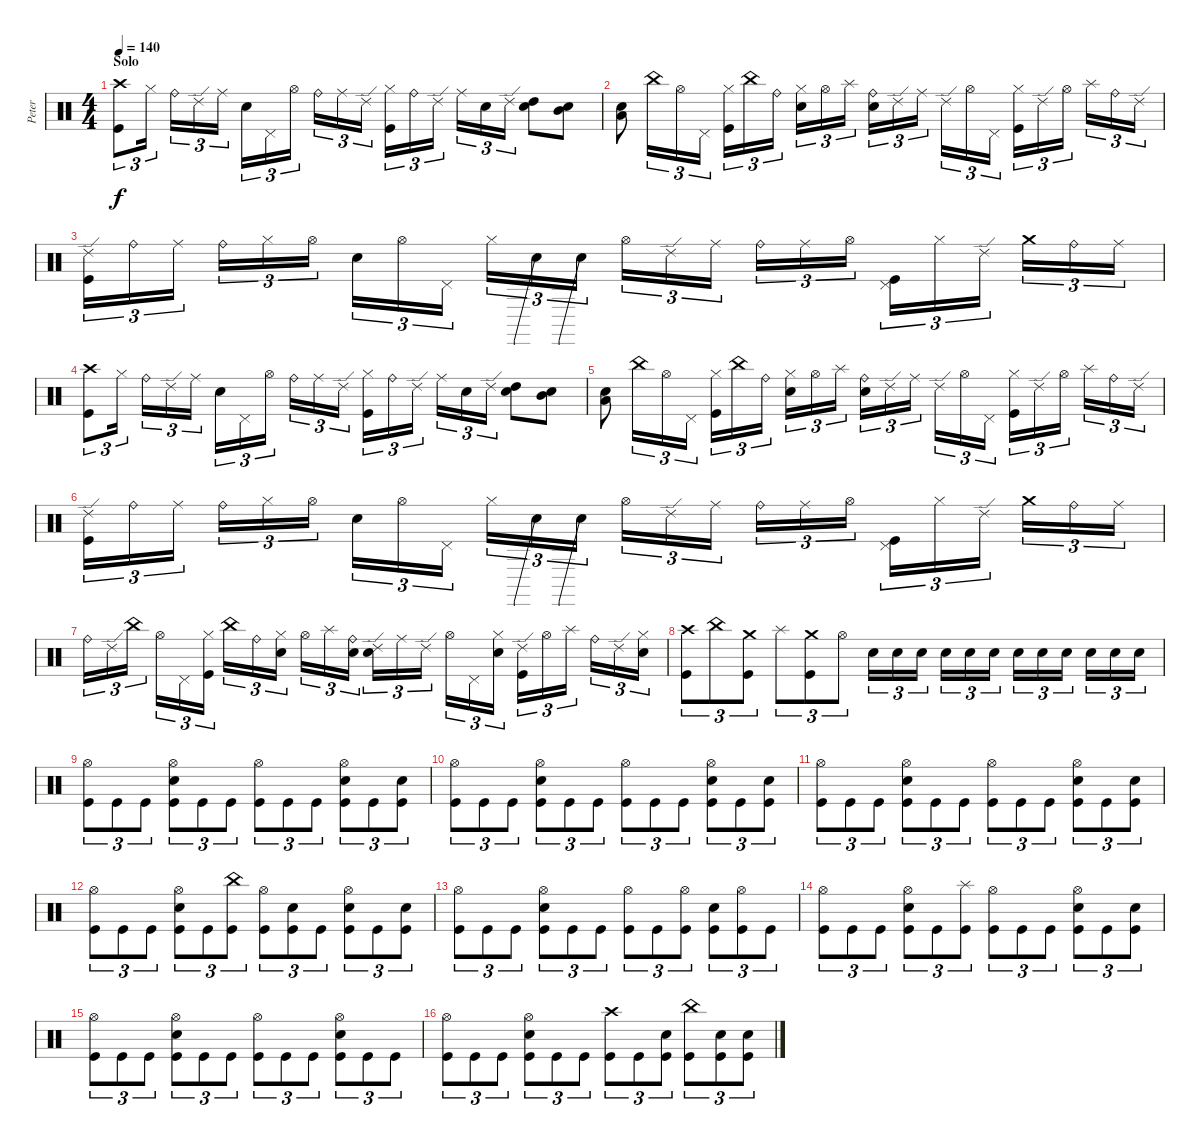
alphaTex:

\track ("Peter" "Peter") {instrument percussion}
\staff {score}
\articulation defaults
\ts (4 4)
\section ("" "Solo")
\tempo 140
\clef neutral
\ks c
("Crash high (hit)" "Kick (hit)").8{tu (3 2) dy f} "Hi-Hat (closed)".16{tu (3 2)} "Ride (bell)".16{tu (3 2)} "Ride (edge) 2".16{tu (3 2)} "Ride (middle)".16{tu (3 2)} "Electric Snare (hit)".16{tu (3 2)} "Pedal Hi-Hat (hit)".16{tu (3 2)} "Hi-Hat (open)".16{tu (3 2)} "Ride (bell)".16{tu (3 2)} "Ride (middle)".16{tu (3 2)} "Ride (edge) 2".16{tu (3 2)} ("Hi-Hat (closed)" "Kick (hit)").16{tu (3 2)} "Ride (bell)".16{tu (3 2)} "Ride (edge) 2".16{tu (3 2)} "Ride (middle)".16{tu (3 2)} "Electric Snare (hit)".16{tu (3 2)} "Ride (edge) 2".16{tu (3 2)} ("High Tom (hit)" "Electric Snare (hit)").8 ("Mid Tom (hit)" "Electric Snare (hit)").8 |
("Low Tom (hit)" "Electric Snare (hit)").8 "China (hit)".16{tu (3 2)} "Hi-Hat (open)".16{tu (3 2)} "Pedal Hi-Hat (hit)".16{tu (3 2)} ("Hi-Hat (closed)" "Kick (hit)").16{tu (3 2)} "China (hit)".16{tu (3 2)} "Ride (bell)".16{tu (3 2)} ("Hi-Hat (closed)" "Electric Snare (hit)").16{tu (3 2)} "Hi-Hat (open)".16{tu (3 2)} "Splash (hit)".16{tu (3 2)} ("Ride (bell)" "Electric Snare (hit)").16{tu (3 2)} "Ride (edge) 2".16{tu (3 2)} "Ride (middle)".16{tu (3 2)} "Ride (edge) 2".16{tu (3 2)} "Hi-Hat (open)".16{tu (3 2)} "Pedal Hi-Hat (hit)".16{tu (3 2)} ("Hi-Hat (closed)" "Kick (hit)").16{tu (3 2)} "Ride (edge) 2".16{tu (3 2)} "Hi-Hat (open)".16{tu (3 2)} "Splash (hit)".16{tu (3 2)} "Ride (bell)".16{tu (3 2)} "Ride (edge) 2".16{tu (3 2)} |
("Ride (edge) 2" "Kick (hit)").16{tu (3 2)} "Ride (bell)".16{tu (3 2)} "Ride (middle)".16{tu (3 2)} "Ride (bell)".16{tu (3 2)} "Hi-Hat (closed)".16{tu (3 2)} "Hi-Hat (open)".16{tu (3 2)} "Electric Snare (hit)".16{tu (3 2)} "Hi-Hat (open)".16{tu (3 2)} "Pedal Hi-Hat (hit)".16{tu (3 2)} "Hi-Hat (closed)".16{tu (3 2)} "Electric Snare (hit)"{be (prebend 0 12 60 12)}.16{tu (3 2)} "Electric Snare (hit)"{be (prebend 0 12 60 12)}.16{tu (3 2)} "Hi-Hat (open)".16{tu (3 2)} "Ride (edge) 2".16{tu (3 2)} "Ride (middle)".16{tu (3 2)} "Ride (bell)".16{tu (3 2)} "Ride (middle)".16{tu (3 2)} "Hi-Hat (open)".16{tu (3 2)} ("Pedal Hi-Hat (hit)" "Kick (hit)").16{tu (3 2)} "Hi-Hat (closed)".16{tu (3 2)} "Ride (edge) 2".16{tu (3 2)} "Crash medium (hit)".16{tu (3 2)} "Ride (bell)".16{tu (3 2)} "Ride (middle)".16{tu (3 2)} |
("Crash high (hit)" "Kick (hit)").8{tu (3 2)} "Hi-Hat (closed)".16{tu (3 2)} "Ride (bell)".16{tu (3 2)} "Ride (edge) 2".16{tu (3 2)} "Ride (middle)".16{tu (3 2)} "Electric Snare (hit)".16{tu (3 2)} "Pedal Hi-Hat (hit)".16{tu (3 2)} "Hi-Hat (open)".16{tu (3 2)} "Ride (bell)".16{tu (3 2)} "Ride (middle)".16{tu (3 2)} "Ride (edge) 2".16{tu (3 2)} ("Hi-Hat (closed)" "Kick (hit)").16{tu (3 2)} "Ride (bell)".16{tu (3 2)} "Ride (edge) 2".16{tu (3 2)} "Ride (middle)".16{tu (3 2)} "Electric Snare (hit)".16{tu (3 2)} "Ride (edge) 2".16{tu (3 2)} ("High Tom (hit)" "Electric Snare (hit)").8 ("Mid Tom (hit)" "Electric Snare (hit)").8 |
("Low Tom (hit)" "Electric Snare (hit)").8 "China (hit)".16{tu (3 2)} "Hi-Hat (open)".16{tu (3 2)} "Pedal Hi-Hat (hit)".16{tu (3 2)} ("Hi-Hat (closed)" "Kick (hit)").16{tu (3 2)} "China (hit)".16{tu (3 2)} "Ride (bell)".16{tu (3 2)} ("Hi-Hat (closed)" "Electric Snare (hit)").16{tu (3 2)} "Hi-Hat (open)".16{tu (3 2)} "Splash (hit)".16{tu (3 2)} ("Ride (bell)" "Electric Snare (hit)").16{tu (3 2)} "Ride (edge) 2".16{tu (3 2)} "Ride (middle)".16{tu (3 2)} "Ride (edge) 2".16{tu (3 2)} "Hi-Hat (open)".16{tu (3 2)} "Pedal Hi-Hat (hit)".16{tu (3 2)} ("Hi-Hat (closed)" "Kick (hit)").16{tu (3 2)} "Ride (edge) 2".16{tu (3 2)} "Hi-Hat (open)".16{tu (3 2)} "Splash (hit)".16{tu (3 2)} "Ride (bell)".16{tu (3 2)} "Ride (edge) 2".16{tu (3 2)} |
("Ride (edge) 2" "Kick (hit)").16{tu (3 2)} "Ride (bell)".16{tu (3 2)} "Ride (middle)".16{tu (3 2)} "Ride (bell)".16{tu (3 2)} "Hi-Hat (closed)".16{tu (3 2)} "Hi-Hat (open)".16{tu (3 2)} "Electric Snare (hit)".16{tu (3 2)} "Hi-Hat (open)".16{tu (3 2)} "Pedal Hi-Hat (hit)".16{tu (3 2)} "Hi-Hat (closed)".16{tu (3 2)} "Electric Snare (hit)"{be (prebend 0 12 60 12)}.16{tu (3 2)} "Electric Snare (hit)"{be (prebend 0 12 60 12)}.16{tu (3 2)} "Hi-Hat (open)".16{tu (3 2)} "Ride (edge) 2".16{tu (3 2)} "Ride (middle)".16{tu (3 2)} "Ride (bell)".16{tu (3 2)} "Ride (middle)".16{tu (3 2)} "Hi-Hat (open)".16{tu (3 2)} ("Pedal Hi-Hat (hit)" "Kick (hit)").16{tu (3 2)} "Hi-Hat (closed)".16{tu (3 2)} "Ride (edge) 2".16{tu (3 2)} "Crash medium (hit)".16{tu (3 2)} "Ride (bell)".16{tu (3 2)} "Ride (middle)".16{tu (3 2)} |
"Ride (bell)".16{tu (3 2)} "Ride (edge) 2".16{tu (3 2)} "China (hit)".16{tu (3 2)} "Hi-Hat (open)".16{tu (3 2)} "Pedal Hi-Hat (hit)".16{tu (3 2)} ("Hi-Hat (closed)" "Kick (hit)").16{tu (3 2)} "China (hit)".16{tu (3 2)} "Ride (bell)".16{tu (3 2)} ("Hi-Hat (closed)" "Electric Snare (hit)").16{tu (3 2)} "Hi-Hat (open)".16{tu (3 2)} "Splash (hit)".16{tu (3 2)} ("Ride (bell)" "Electric Snare (hit)").16{tu (3 2)} ("Ride (edge) 2" "Electric Snare (hit)").16{tu (3 2)} "Ride (middle)".16{tu (3 2)} "Ride (edge) 2".16{tu (3 2)} "Hi-Hat (open)".16{tu (3 2)} "Pedal Hi-Hat (hit)".16{tu (3 2)} ("Hi-Hat (closed)" "Electric Snare (hit)").16{tu (3 2)} ("Ride (edge) 2" "Kick (hit)").16{tu (3 2)} "Hi-Hat (open)".16{tu (3 2)} "Splash (hit)".16{tu (3 2)} "Ride (bell)".16{tu (3 2)} "Ride (edge) 2".16{tu (3 2)} ("Hi-Hat (closed)" "Electric Snare (hit)").16{tu (3 2)} |
("Crash high (hit)" "Kick (hit)").8{tu (3 2)} "China (hit)".8{tu (3 2)} ("Crash medium (hit)" "Kick (hit)").8{tu (3 2)} "Splash (hit)".8{tu (3 2)} ("Crash medium (hit)" "Kick (hit)").8{tu (3 2)} "Hi-Hat (open)".8{tu (3 2)} "Electric Snare (hit)".16{tu (3 2)} "Electric Snare (hit)".16{tu (3 2)} "Electric Snare (hit)".16{tu (3 2)} "Electric Snare (hit)".16{tu (3 2)} "Electric Snare (hit)".16{tu (3 2)} "Electric Snare (hit)".16{tu (3 2)} "Electric Snare (hit)".16{tu (3 2)} "Electric Snare (hit)".16{tu (3 2)} "Electric Snare (hit)".16{tu (3 2)} "Electric Snare (hit)".16{tu (3 2)} "Electric Snare (hit)".16{tu (3 2)} "Electric Snare (hit)".16{tu (3 2)} |
("Hi-Hat (open)" "Kick (hit)").8{tu (3 2)} "Kick (hit)".8{tu (3 2)} "Kick (hit)".8{tu (3 2)} ("Hi-Hat (open)" "Electric Snare (hit)" "Kick (hit)").8{tu (3 2)} "Kick (hit)".8{tu (3 2)} "Kick (hit)".8{tu (3 2)} ("Hi-Hat (open)" "Kick (hit)").8{tu (3 2)} "Kick (hit)".8{tu (3 2)} "Kick (hit)".8{tu (3 2)} ("Hi-Hat (open)" "Electric Snare (hit)" "Kick (hit)").8{tu (3 2)} "Kick (hit)".8{tu (3 2)} ("Electric Snare (hit)" "Kick (hit)").8{tu (3 2)} |
("Hi-Hat (open)" "Kick (hit)").8{tu (3 2)} "Kick (hit)".8{tu (3 2)} "Kick (hit)".8{tu (3 2)} ("Hi-Hat (open)" "Electric Snare (hit)" "Kick (hit)").8{tu (3 2)} "Kick (hit)".8{tu (3 2)} "Kick (hit)".8{tu (3 2)} ("Hi-Hat (open)" "Kick (hit)").8{tu (3 2)} "Kick (hit)".8{tu (3 2)} "Kick (hit)".8{tu (3 2)} ("Hi-Hat (open)" "Electric Snare (hit)" "Kick (hit)").8{tu (3 2)} "Kick (hit)".8{tu (3 2)} ("Electric Snare (hit)" "Kick (hit)").8{tu (3 2)} |
("Hi-Hat (open)" "Kick (hit)").8{tu (3 2)} "Kick (hit)".8{tu (3 2)} "Kick (hit)".8{tu (3 2)} ("Hi-Hat (open)" "Electric Snare (hit)" "Kick (hit)").8{tu (3 2)} "Kick (hit)".8{tu (3 2)} "Kick (hit)".8{tu (3 2)} ("Hi-Hat (open)" "Kick (hit)").8{tu (3 2)} "Kick (hit)".8{tu (3 2)} "Kick (hit)".8{tu (3 2)} ("Hi-Hat (open)" "Electric Snare (hit)" "Kick (hit)").8{tu (3 2)} "Kick (hit)".8{tu (3 2)} ("Electric Snare (hit)" "Kick (hit)").8{tu (3 2)} |
("Hi-Hat (open)" "Kick (hit)").8{tu (3 2)} "Kick (hit)".8{tu (3 2)} "Kick (hit)".8{tu (3 2)} ("Hi-Hat (open)" "Electric Snare (hit)" "Kick (hit)").8{tu (3 2)} "Kick (hit)".8{tu (3 2)} ("China (hit)" "Kick (hit)").8{tu (3 2)} ("Hi-Hat (open)" "Kick (hit)").8{tu (3 2)} ("Electric Snare (hit)" "Kick (hit)").8{tu (3 2)} "Kick (hit)".8{tu (3 2)} ("Hi-Hat (open)" "Electric Snare (hit)" "Kick (hit)").8{tu (3 2)} "Kick (hit)".8{tu (3 2)} ("Electric Snare (hit)" "Kick (hit)").8{tu (3 2)} |
("Hi-Hat (open)" "Kick (hit)").8{tu (3 2)} "Kick (hit)".8{tu (3 2)} "Kick (hit)".8{tu (3 2)} ("Hi-Hat (open)" "Electric Snare (hit)" "Kick (hit)").8{tu (3 2)} "Kick (hit)".8{tu (3 2)} "Kick (hit)".8{tu (3 2)} ("Hi-Hat (open)" "Kick (hit)").8{tu (3 2)} "Kick (hit)".8{tu (3 2)} ("Hi-Hat (open)" "Kick (hit)").8{tu (3 2)} ("Electric Snare (hit)" "Kick (hit)").8{tu (3 2)} ("Hi-Hat (open)" "Kick (hit)").8{tu (3 2)} "Kick (hit)".8{tu (3 2)} |
("Hi-Hat (open)" "Kick (hit)").8{tu (3 2)} "Kick (hit)".8{tu (3 2)} "Kick (hit)".8{tu (3 2)} ("Hi-Hat (open)" "Electric Snare (hit)" "Kick (hit)").8{tu (3 2)} "Kick (hit)".8{tu (3 2)} ("Splash (hit)" "Kick (hit)").8{tu (3 2)} ("Hi-Hat (open)" "Kick (hit)").8{tu (3 2)} "Kick (hit)".8{tu (3 2)} "Kick (hit)".8{tu (3 2)} ("Hi-Hat (open)" "Electric Snare (hit)" "Kick (hit)").8{tu (3 2)} "Kick (hit)".8{tu (3 2)} ("Electric Snare (hit)" "Kick (hit)").8{tu (3 2)} |
("Hi-Hat (open)" "Kick (hit)").8{tu (3 2)} "Kick (hit)".8{tu (3 2)} "Kick (hit)".8{tu (3 2)} ("Hi-Hat (open)" "Electric Snare (hit)" "Kick (hit)").8{tu (3 2)} "Kick (hit)".8{tu (3 2)} "Kick (hit)".8{tu (3 2)} ("Hi-Hat (open)" "Kick (hit)").8{tu (3 2)} "Kick (hit)".8{tu (3 2)} "Kick (hit)".8{tu (3 2)} ("Hi-Hat (open)" "Electric Snare (hit)" "Kick (hit)").8{tu (3 2)} "Kick (hit)".8{tu (3 2)} "Kick (hit)".8{tu (3 2)} |
("Hi-Hat (open)" "Kick (hit)").8{tu (3 2)} "Kick (hit)".8{tu (3 2)} "Kick (hit)".8{tu (3 2)} ("Hi-Hat (open)" "Electric Snare (hit)" "Kick (hit)").8{tu (3 2)} "Kick (hit)".8{tu (3 2)} "Kick (hit)".8{tu (3 2)} ("Crash high (hit)" "Kick (hit)").8{tu (3 2)} "Kick (hit)".8{tu (3 2)} ("Electric Snare (hit)" "Kick (hit)").8{tu (3 2)} ("China (hit)" "Kick (hit)").8{tu (3 2)} ("Electric Snare (hit)" "Kick (hit)").8{tu (3 2)} ("Electric Snare (hit)" "Kick (hit)").8{tu (3 2)}
